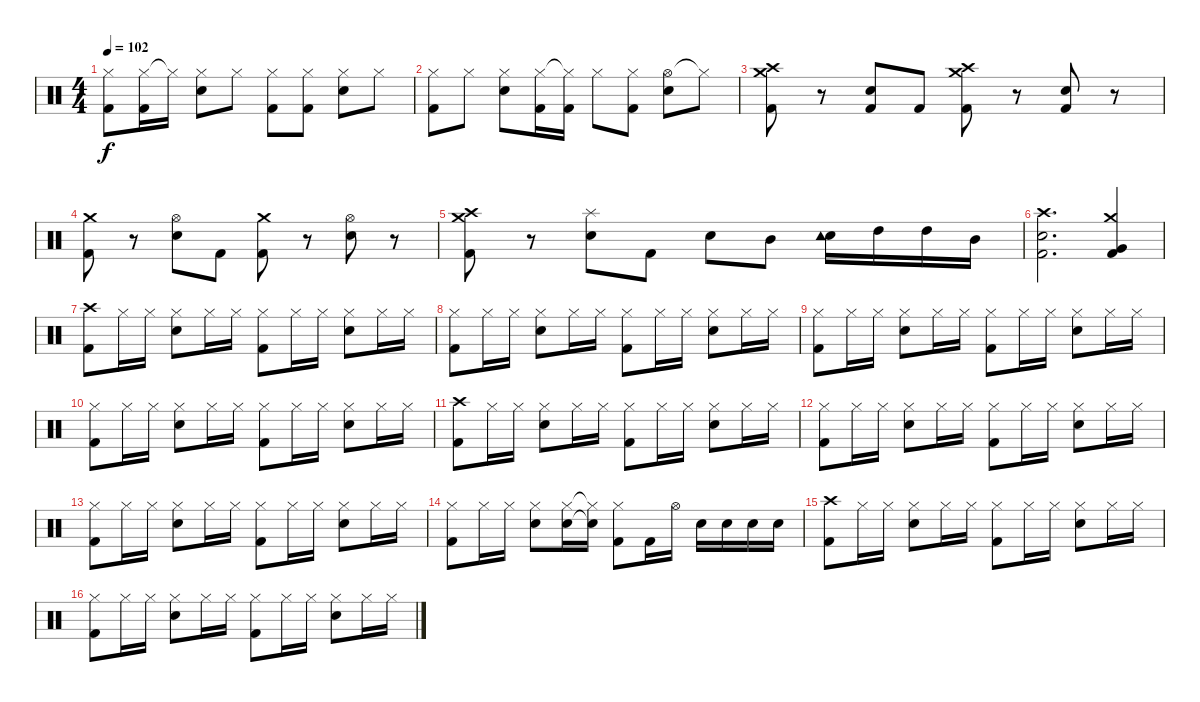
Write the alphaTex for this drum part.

\track "" {instrument percussion}
\staff {score}
\articulation defaults
\ts (4 4)
\tempo 102
\clef neutral
\ks c
("Hi-Hat (closed)" "Kick (hit) 2").8{dy f} ("Hi-Hat (closed)" "Kick (hit) 2").16 "Hi-Hat (closed)"{t}.16 ("Hi-Hat (closed)" "Snare (hit) 2").8 "Hi-Hat (closed)".8 ("Hi-Hat (closed)" "Kick (hit) 2").8 ("Hi-Hat (closed)" "Kick (hit) 2").8 ("Hi-Hat (closed)" "Snare (hit) 2").8 "Hi-Hat (closed)".8 |
("Hi-Hat (closed)" "Kick (hit) 2").8 "Hi-Hat (closed)".8 ("Hi-Hat (closed)" "Snare (hit) 2").8 ("Hi-Hat (closed)" "Kick (hit) 2").16 ("Hi-Hat (closed)"{t} "Kick (hit) 2").16 "Hi-Hat (closed)".8 ("Hi-Hat (closed)" "Kick (hit) 2").8 ("Hi-Hat (open)" "Snare (hit) 2").8 "Hi-Hat (closed)"{t}.8 |
("Crash medium (hit)" "Crash high (hit)" "Kick (hit) 2").8 r.8 ("Snare (hit) 2" "Kick (hit) 2").8 "Kick (hit) 2".8 ("Crash medium (hit)" "Crash high (hit)" "Kick (hit) 2").8 r.8 ("Snare (hit) 2" "Kick (hit) 2").8 r.8 |
("Crash medium (hit)" "Kick (hit) 2").8 r.8 ("Snare (hit) 2" "Hi-Hat (open)").8 "Kick (hit) 2".8 ("Crash medium (hit)" "Kick (hit) 2").8 r.8 ("Snare (hit) 2" "Hi-Hat (open)").8 r.8 |
("Crash medium (hit)" "Crash high (hit)" "Kick (hit) 2").8 r.8 ("Snare (hit) 2" "Splash (hit)").8 "Kick (hit) 2".8 "Snare (hit) 2".8 "Mid Tom (hit)".8 ("Snare (hit) 2" "Tambourine (hit)").16 "High Tom (hit)".16 "High Tom (hit)".16 "Mid Tom (hit)".16 |
("Snare (hit) 2" "Crash high (hit)" "Kick (hit) 2").2{d} ("Crash medium (hit)" "Very Low Tom (hit)" "Kick (hit) 2").4 |
("Crash high (hit)" "Kick (hit) 2").8 "Hi-Hat (closed)".16 "Hi-Hat (closed)".16 ("Hi-Hat (closed)" "Snare (hit) 2").8 "Hi-Hat (closed)".16 "Hi-Hat (closed)".16 ("Hi-Hat (closed)" "Kick (hit) 2").8 "Hi-Hat (closed)".16 "Hi-Hat (closed)".16 ("Hi-Hat (closed)" "Snare (hit) 2").8 "Hi-Hat (closed)".16 "Hi-Hat (closed)".16 |
("Hi-Hat (closed)" "Kick (hit) 2").8 "Hi-Hat (closed)".16 "Hi-Hat (closed)".16 ("Hi-Hat (closed)" "Snare (hit) 2").8 "Hi-Hat (closed)".16 "Hi-Hat (closed)".16 ("Hi-Hat (closed)" "Kick (hit) 2").8 "Hi-Hat (closed)".16 "Hi-Hat (closed)".16 ("Hi-Hat (closed)" "Snare (hit) 2").8 "Hi-Hat (closed)".16 "Hi-Hat (closed)".16 |
("Hi-Hat (closed)" "Kick (hit) 2").8 "Hi-Hat (closed)".16 "Hi-Hat (closed)".16 ("Hi-Hat (closed)" "Snare (hit) 2").8 "Hi-Hat (closed)".16 "Hi-Hat (closed)".16 ("Hi-Hat (closed)" "Kick (hit) 2").8 "Hi-Hat (closed)".16 "Hi-Hat (closed)".16 ("Hi-Hat (closed)" "Snare (hit) 2").8 "Hi-Hat (closed)".16 "Hi-Hat (closed)".16 |
("Hi-Hat (closed)" "Kick (hit) 2").8 "Hi-Hat (closed)".16 "Hi-Hat (closed)".16 ("Hi-Hat (closed)" "Snare (hit) 2").8 "Hi-Hat (closed)".16 "Hi-Hat (closed)".16 ("Hi-Hat (closed)" "Kick (hit) 2").8 "Hi-Hat (closed)".16 "Hi-Hat (closed)".16 ("Hi-Hat (closed)" "Snare (hit) 2").8 "Hi-Hat (closed)".16 "Hi-Hat (closed)".16 |
("Crash high (hit)" "Kick (hit) 2").8 "Hi-Hat (closed)".16 "Hi-Hat (closed)".16 ("Hi-Hat (closed)" "Snare (hit) 2").8 "Hi-Hat (closed)".16 "Hi-Hat (closed)".16 ("Hi-Hat (closed)" "Kick (hit) 2").8 "Hi-Hat (closed)".16 "Hi-Hat (closed)".16 ("Hi-Hat (closed)" "Snare (hit) 2").8 "Hi-Hat (closed)".16 "Hi-Hat (closed)".16 |
("Hi-Hat (closed)" "Kick (hit) 2").8 "Hi-Hat (closed)".16 "Hi-Hat (closed)".16 ("Hi-Hat (closed)" "Snare (hit) 2").8 "Hi-Hat (closed)".16 "Hi-Hat (closed)".16 ("Hi-Hat (closed)" "Kick (hit) 2").8 "Hi-Hat (closed)".16 "Hi-Hat (closed)".16 ("Hi-Hat (closed)" "Snare (hit) 2").8 "Hi-Hat (closed)".16 "Hi-Hat (closed)".16 |
("Hi-Hat (closed)" "Kick (hit) 2").8 "Hi-Hat (closed)".16 "Hi-Hat (closed)".16 ("Hi-Hat (closed)" "Snare (hit) 2").8 "Hi-Hat (closed)".16 "Hi-Hat (closed)".16 ("Hi-Hat (closed)" "Kick (hit) 2").8 "Hi-Hat (closed)".16 "Hi-Hat (closed)".16 ("Hi-Hat (closed)" "Snare (hit) 2").8 "Hi-Hat (closed)".16 "Hi-Hat (closed)".16 |
("Hi-Hat (closed)" "Kick (hit) 2").8 "Hi-Hat (closed)".16 "Hi-Hat (closed)".16 ("Hi-Hat (closed)" "Snare (hit) 2").8 ("Hi-Hat (closed)" "Snare (hit) 2").16 ("Hi-Hat (closed)"{t} "Snare (hit)"{t}).16 ("Hi-Hat (closed)" "Kick (hit) 2").8 "Kick (hit) 2".16 "Hi-Hat (open)".16 "Snare (hit) 2".16 "Snare (hit) 2".16 "Snare (hit) 2".16 "Snare (hit) 2".16 |
("Crash high (hit)" "Kick (hit) 2").8 "Hi-Hat (closed)".16 "Hi-Hat (closed)".16 ("Hi-Hat (closed)" "Snare (hit) 2").8 "Hi-Hat (closed)".16 "Hi-Hat (closed)".16 ("Hi-Hat (closed)" "Kick (hit) 2").8 "Hi-Hat (closed)".16 "Hi-Hat (closed)".16 ("Hi-Hat (closed)" "Snare (hit) 2").8 "Hi-Hat (closed)".16 "Hi-Hat (closed)".16 |
("Hi-Hat (closed)" "Kick (hit) 2").8 "Hi-Hat (closed)".16 "Hi-Hat (closed)".16 ("Hi-Hat (closed)" "Snare (hit) 2").8 "Hi-Hat (closed)".16 "Hi-Hat (closed)".16 ("Hi-Hat (closed)" "Kick (hit) 2").8 "Hi-Hat (closed)".16 "Hi-Hat (closed)".16 ("Hi-Hat (closed)" "Snare (hit) 2").8 "Hi-Hat (closed)".16 "Hi-Hat (closed)".16
